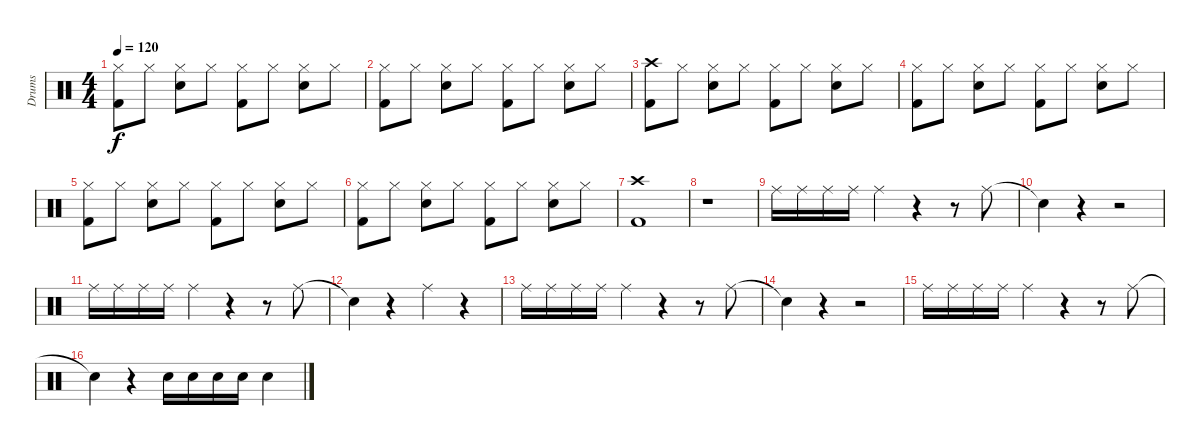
\track ("Drums" "Drums") {instrument percussion}
\staff {score}
\articulation defaults
\ts (4 4)
\tempo 120
\clef neutral
\ks c
("Hi-Hat (closed)" "Kick (hit) 2").8{dy f} "Hi-Hat (closed)".8 ("Hi-Hat (closed)" "Electric Snare (hit)").8 "Hi-Hat (closed)".8 ("Hi-Hat (closed)" "Kick (hit) 2").8 "Hi-Hat (closed)".8 ("Hi-Hat (closed)" "Electric Snare (hit)").8 "Hi-Hat (closed)".8 |
("Hi-Hat (closed)" "Kick (hit) 2").8 "Hi-Hat (closed)".8 ("Hi-Hat (closed)" "Electric Snare (hit)").8 "Hi-Hat (closed)".8 ("Hi-Hat (closed)" "Kick (hit) 2").8 "Hi-Hat (closed)".8 ("Hi-Hat (closed)" "Electric Snare (hit)").8 "Hi-Hat (closed)".8 |
("Crash high (hit)" "Kick (hit) 2").8 "Hi-Hat (closed)".8 ("Hi-Hat (closed)" "Electric Snare (hit)").8 "Hi-Hat (closed)".8 ("Hi-Hat (closed)" "Kick (hit) 2").8 "Hi-Hat (closed)".8 ("Hi-Hat (closed)" "Electric Snare (hit)").8 "Hi-Hat (closed)".8 |
("Hi-Hat (closed)" "Kick (hit) 2").8 "Hi-Hat (closed)".8 ("Hi-Hat (closed)" "Electric Snare (hit)").8 "Hi-Hat (closed)".8 ("Hi-Hat (closed)" "Kick (hit) 2").8 "Hi-Hat (closed)".8 ("Hi-Hat (closed)" "Electric Snare (hit)").8 "Hi-Hat (closed)".8 |
("Hi-Hat (closed)" "Kick (hit) 2").8 "Hi-Hat (closed)".8 ("Hi-Hat (closed)" "Electric Snare (hit)").8 "Hi-Hat (closed)".8 ("Hi-Hat (closed)" "Kick (hit) 2").8 "Hi-Hat (closed)".8 ("Hi-Hat (closed)" "Electric Snare (hit)").8 "Hi-Hat (closed)".8 |
("Hi-Hat (closed)" "Kick (hit) 2").8 "Hi-Hat (closed)".8 ("Hi-Hat (closed)" "Electric Snare (hit)").8 "Hi-Hat (closed)".8 ("Hi-Hat (closed)" "Kick (hit) 2").8 "Hi-Hat (closed)".8 ("Hi-Hat (closed)" "Electric Snare (hit)").8 "Hi-Hat (closed)".8 |
("Crash high (hit)" "Kick (hit) 2").1 |
r.1 |
"Ride (middle)".16 "Ride (middle)".16 "Ride (middle)".16 "Ride (middle)".16 "Ride (middle)".4 r.4 r.8 "Ride (middle)".8 |
"Snare (hit)"{t}.4 r.4 r.2 |
"Ride (middle)".16 "Ride (middle)".16 "Ride (middle)".16 "Ride (middle)".16 "Ride (middle)".4 r.4 r.8 "Ride (middle)".8 |
"Snare (hit)"{t}.4 r.4 "Ride (middle)".4 r.4 |
"Ride (middle)".16 "Ride (middle)".16 "Ride (middle)".16 "Ride (middle)".16 "Ride (middle)".4 r.4 r.8 "Ride (middle)".8 |
"Snare (hit)"{t}.4 r.4 r.2 |
"Ride (middle)".16 "Ride (middle)".16 "Ride (middle)".16 "Ride (middle)".16 "Ride (middle)".4 r.4 r.8 "Ride (middle)".8 |
"Snare (hit)"{t}.4 r.4 "Electric Snare (hit)".16 "Electric Snare (hit)".16 "Electric Snare (hit)".16 "Electric Snare (hit)".16 "Electric Snare (hit)".4
